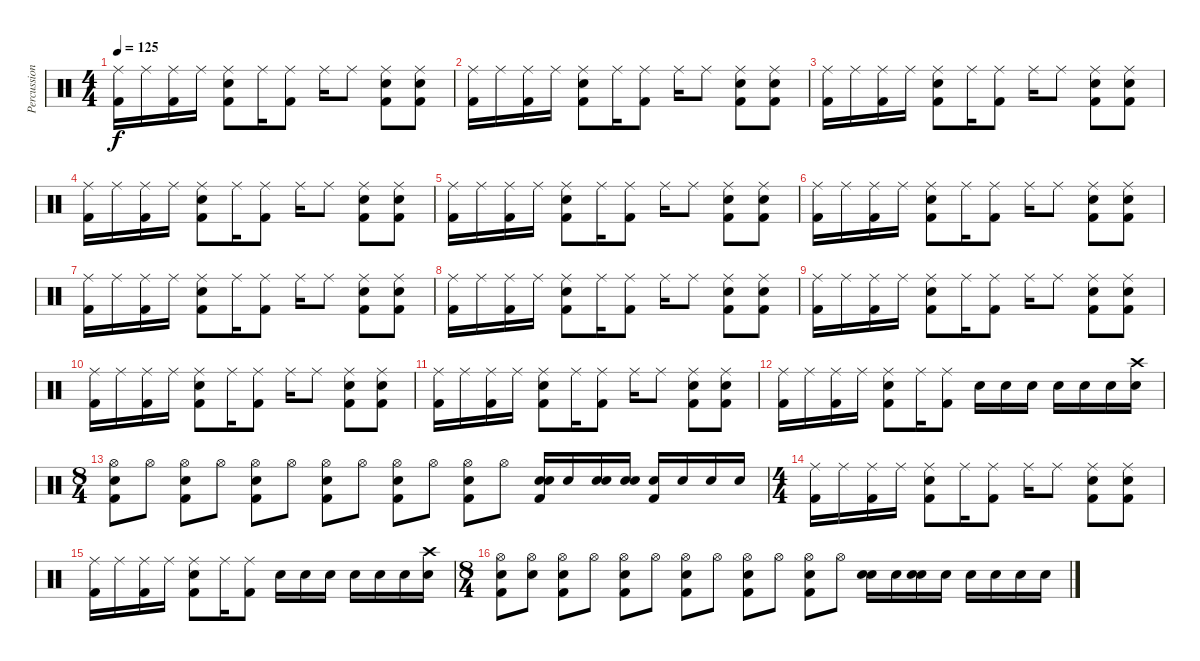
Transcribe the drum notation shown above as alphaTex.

\track ("Percussions" "Percussion") {instrument percussion}
\staff {score}
\articulation defaults
\ts (4 4)
\tempo 125
\clef neutral
\ks c
("Ride (middle)" "Kick (hit) 2").16{dy f} "Ride (middle)".16 ("Ride (middle)" "Kick (hit) 2").16 "Ride (middle)".16 ("Ride (middle)" "Snare (hit) 2" "Kick (hit) 2").8 "Ride (middle)".16 ("Ride (middle)" "Kick (hit) 2").8 "Ride (middle)".16 "Ride (middle)".8 ("Ride (middle)" "Snare (hit) 2" "Kick (hit) 2").8 ("Ride (middle)" "Snare (hit) 2" "Kick (hit) 2").8 |
("Ride (middle)" "Kick (hit) 2").16 "Ride (middle)".16 ("Ride (middle)" "Kick (hit) 2").16 "Ride (middle)".16 ("Ride (middle)" "Snare (hit) 2" "Kick (hit) 2").8 "Ride (middle)".16 ("Ride (middle)" "Kick (hit) 2").8 "Ride (middle)".16 "Ride (middle)".8 ("Ride (middle)" "Snare (hit) 2" "Kick (hit) 2").8 ("Ride (middle)" "Snare (hit) 2" "Kick (hit) 2").8 |
("Ride (middle)" "Kick (hit) 2").16 "Ride (middle)".16 ("Ride (middle)" "Kick (hit) 2").16 "Ride (middle)".16 ("Ride (middle)" "Snare (hit) 2" "Kick (hit) 2").8 "Ride (middle)".16 ("Ride (middle)" "Kick (hit) 2").8 "Ride (middle)".16 "Ride (middle)".8 ("Ride (middle)" "Snare (hit) 2" "Kick (hit) 2").8 ("Ride (middle)" "Snare (hit) 2" "Kick (hit) 2").8 |
("Ride (middle)" "Kick (hit) 2").16 "Ride (middle)".16 ("Ride (middle)" "Kick (hit) 2").16 "Ride (middle)".16 ("Ride (middle)" "Snare (hit) 2" "Kick (hit) 2").8 "Ride (middle)".16 ("Ride (middle)" "Kick (hit) 2").8 "Ride (middle)".16 "Ride (middle)".8 ("Ride (middle)" "Snare (hit) 2" "Kick (hit) 2").8 ("Ride (middle)" "Snare (hit) 2" "Kick (hit) 2").8 |
("Ride (middle)" "Kick (hit) 2").16 "Ride (middle)".16 ("Ride (middle)" "Kick (hit) 2").16 "Ride (middle)".16 ("Ride (middle)" "Snare (hit) 2" "Kick (hit) 2").8 "Ride (middle)".16 ("Ride (middle)" "Kick (hit) 2").8 "Ride (middle)".16 "Ride (middle)".8 ("Ride (middle)" "Snare (hit) 2" "Kick (hit) 2").8 ("Ride (middle)" "Snare (hit) 2" "Kick (hit) 2").8 |
("Ride (middle)" "Kick (hit) 2").16 "Ride (middle)".16 ("Ride (middle)" "Kick (hit) 2").16 "Ride (middle)".16 ("Ride (middle)" "Snare (hit) 2" "Kick (hit) 2").8 "Ride (middle)".16 ("Ride (middle)" "Kick (hit) 2").8 "Ride (middle)".16 "Ride (middle)".8 ("Ride (middle)" "Snare (hit) 2" "Kick (hit) 2").8 ("Ride (middle)" "Snare (hit) 2" "Kick (hit) 2").8 |
("Ride (middle)" "Kick (hit) 2").16 "Ride (middle)".16 ("Ride (middle)" "Kick (hit) 2").16 "Ride (middle)".16 ("Ride (middle)" "Snare (hit) 2" "Kick (hit) 2").8 "Ride (middle)".16 ("Ride (middle)" "Kick (hit) 2").8 "Ride (middle)".16 "Ride (middle)".8 ("Ride (middle)" "Snare (hit) 2" "Kick (hit) 2").8 ("Ride (middle)" "Snare (hit) 2" "Kick (hit) 2").8 |
("Ride (middle)" "Kick (hit) 2").16 "Ride (middle)".16 ("Ride (middle)" "Kick (hit) 2").16 "Ride (middle)".16 ("Ride (middle)" "Snare (hit) 2" "Kick (hit) 2").8 "Ride (middle)".16 ("Ride (middle)" "Kick (hit) 2").8 "Ride (middle)".16 "Ride (middle)".8 ("Ride (middle)" "Snare (hit) 2" "Kick (hit) 2").8 ("Ride (middle)" "Snare (hit) 2" "Kick (hit) 2").8 |
("Ride (middle)" "Kick (hit) 2").16 "Ride (middle)".16 ("Ride (middle)" "Kick (hit) 2").16 "Ride (middle)".16 ("Ride (middle)" "Snare (hit) 2" "Kick (hit) 2").8 "Ride (middle)".16 ("Ride (middle)" "Kick (hit) 2").8 "Ride (middle)".16 "Ride (middle)".8 ("Ride (middle)" "Snare (hit) 2" "Kick (hit) 2").8 ("Ride (middle)" "Snare (hit) 2" "Kick (hit) 2").8 |
("Ride (middle)" "Kick (hit) 2").16 "Ride (middle)".16 ("Ride (middle)" "Kick (hit) 2").16 "Ride (middle)".16 ("Ride (middle)" "Snare (hit) 2" "Kick (hit) 2").8 "Ride (middle)".16 ("Ride (middle)" "Kick (hit) 2").8 "Ride (middle)".16 "Ride (middle)".8 ("Ride (middle)" "Snare (hit) 2" "Kick (hit) 2").8 ("Ride (middle)" "Snare (hit) 2" "Kick (hit) 2").8 |
("Ride (middle)" "Kick (hit) 2").16 "Ride (middle)".16 ("Ride (middle)" "Kick (hit) 2").16 "Ride (middle)".16 ("Ride (middle)" "Snare (hit) 2" "Kick (hit) 2").8 "Ride (middle)".16 ("Ride (middle)" "Kick (hit) 2").8 "Ride (middle)".16 "Ride (middle)".8 ("Ride (middle)" "Snare (hit) 2" "Kick (hit) 2").8 ("Ride (middle)" "Snare (hit) 2" "Kick (hit) 2").8 |
("Ride (middle)" "Kick (hit) 2").16 "Ride (middle)".16 ("Ride (middle)" "Kick (hit) 2").16 "Ride (middle)".16 ("Ride (middle)" "Snare (hit) 2" "Kick (hit) 2").8 "Ride (middle)".16 ("Ride (middle)" "Kick (hit) 2").8 "Snare (hit) 2".16 "Snare (hit) 2".16 "Snare (hit) 2".16 "Snare (hit) 2".16 "Snare (hit) 2".16 "Snare (hit) 2".16 ("Snare (hit) 2" "Crash high (hit)").16 |
\ts (8 4)
("Hi-Hat (open)" "Snare (hit) 2" "Kick (hit) 2").8 "Hi-Hat (open)".8 ("Hi-Hat (open)" "Snare (hit) 2" "Kick (hit) 2").8 "Hi-Hat (open)".8 ("Hi-Hat (open)" "Snare (hit) 2" "Kick (hit) 2").8 "Hi-Hat (open)".8 ("Hi-Hat (open)" "Snare (hit) 2" "Kick (hit) 2").8 "Hi-Hat (open)".8 ("Hi-Hat (open)" "Snare (hit) 2" "Kick (hit) 2").8 "Hi-Hat (open)".8 ("Hi-Hat (open)" "Snare (hit) 2" "Kick (hit) 2").8 "Hi-Hat (open)".8 ("Snare (hit) 2" "Snare (hit) 2" "Kick (hit) 2").16 "Snare (hit) 2".16 ("Snare (hit) 2" "Snare (hit) 2").16 ("Snare (hit) 2" "Snare (hit)").16 ("Snare (hit) 2" "Kick (hit) 2").16 "Snare (hit) 2".16 "Snare (hit) 2".16 "Snare (hit) 2".16 |
\ts (4 4)
("Ride (middle)" "Kick (hit) 2").16 "Ride (middle)".16 ("Ride (middle)" "Kick (hit) 2").16 "Ride (middle)".16 ("Ride (middle)" "Snare (hit) 2" "Kick (hit) 2").8 "Ride (middle)".16 ("Ride (middle)" "Kick (hit) 2").8 "Ride (middle)".16 "Ride (middle)".8 ("Ride (middle)" "Snare (hit) 2" "Kick (hit) 2").8 ("Ride (middle)" "Snare (hit) 2" "Kick (hit) 2").8 |
("Ride (middle)" "Kick (hit) 2").16 "Ride (middle)".16 ("Ride (middle)" "Kick (hit) 2").16 "Ride (middle)".16 ("Ride (middle)" "Snare (hit) 2" "Kick (hit) 2").8 "Ride (middle)".16 ("Ride (middle)" "Kick (hit) 2").8 "Snare (hit) 2".16 "Snare (hit) 2".16 "Snare (hit) 2".16 "Snare (hit) 2".16 "Snare (hit) 2".16 "Snare (hit) 2".16 ("Snare (hit) 2" "Crash high (hit)").16 |
\ts (8 4)
("Hi-Hat (open)" "Snare (hit) 2" "Kick (hit) 2").8 ("Hi-Hat (open)" "Snare (hit)").8 ("Hi-Hat (open)" "Snare (hit) 2" "Kick (hit) 2").8 "Hi-Hat (open)".8 ("Hi-Hat (open)" "Snare (hit) 2" "Kick (hit) 2").8 "Hi-Hat (open)".8 ("Hi-Hat (open)" "Snare (hit) 2" "Kick (hit) 2").8 "Hi-Hat (open)".8 ("Hi-Hat (open)" "Snare (hit) 2" "Kick (hit) 2").8 "Hi-Hat (open)".8 ("Hi-Hat (open)" "Snare (hit) 2" "Kick (hit) 2").8 "Hi-Hat (open)".8 ("Snare (hit) 2" "Snare (hit) 2").16 "Snare (hit) 2".16 ("Snare (hit) 2" "Snare (hit) 2").16 "Snare (hit) 2".16 "Snare (hit) 2".16 "Snare (hit) 2".16 "Snare (hit) 2".16 "Snare (hit) 2".16
